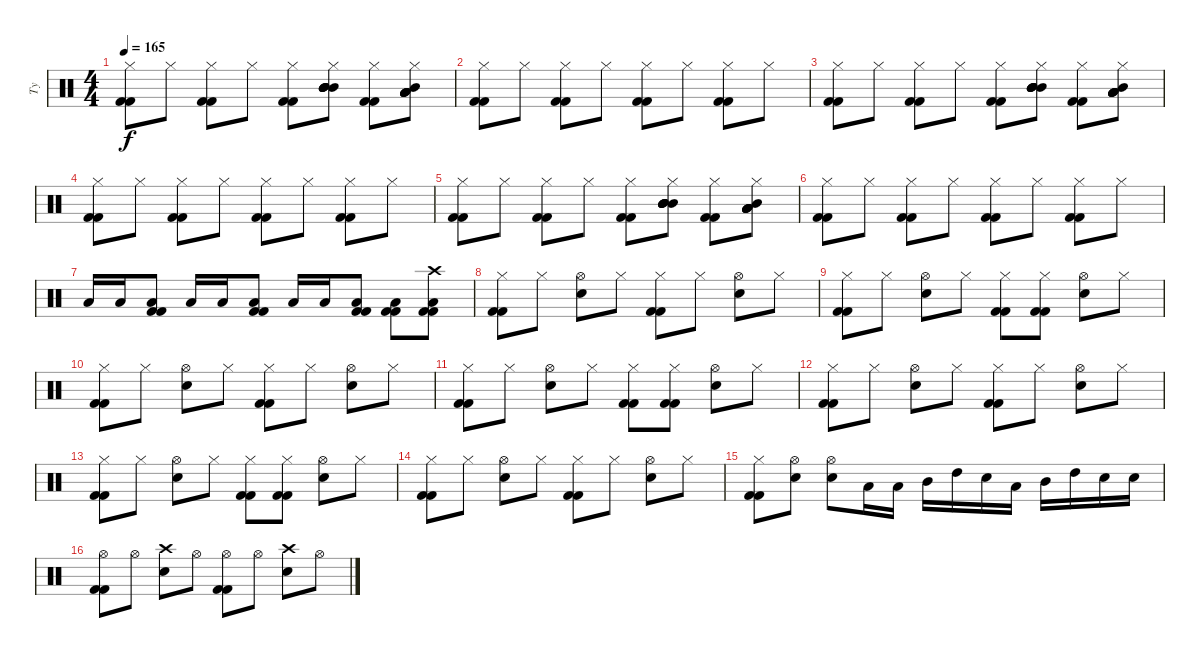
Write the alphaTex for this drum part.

\track ("Ty" "Ty") {instrument percussion}
\staff {score}
\articulation defaults
\ts (4 4)
\tempo 165
\clef neutral
\ks c
("Hi-Hat (closed)" "Kick (hit) 2" "Kick (hit) 2").8{dy f} "Hi-Hat (closed)".8 ("Hi-Hat (closed)" "Kick (hit) 2" "Kick (hit) 2").8 "Hi-Hat (closed)".8 ("Hi-Hat (closed)" "Kick (hit) 2" "Kick (hit) 2").8 ("Hi-Hat (closed)" "Mid Tom (hit)" "Mid Tom (hit)" "Mid Tom (hit)" "Mid Tom (hit)" "Mid Tom (hit)").8 ("Hi-Hat (closed)" "Kick (hit) 2" "Kick (hit) 2").8 ("Hi-Hat (closed)" "Mid Tom (hit)" "Low Tom (hit)" "Low Tom (hit)" "Low Tom (hit)" "Low Tom (hit)").8 |
("Hi-Hat (closed)" "Kick (hit) 2" "Kick (hit) 2").8 "Hi-Hat (closed)".8 ("Hi-Hat (closed)" "Kick (hit) 2" "Kick (hit) 2").8 "Hi-Hat (closed)".8 ("Hi-Hat (closed)" "Kick (hit) 2" "Kick (hit) 2").8 "Hi-Hat (closed)".8 ("Hi-Hat (closed)" "Kick (hit) 2" "Kick (hit) 2").8 "Hi-Hat (closed)".8 |
("Hi-Hat (closed)" "Kick (hit) 2" "Kick (hit) 2").8 "Hi-Hat (closed)".8 ("Hi-Hat (closed)" "Kick (hit) 2" "Kick (hit) 2").8 "Hi-Hat (closed)".8 ("Hi-Hat (closed)" "Kick (hit) 2" "Kick (hit) 2").8 ("Hi-Hat (closed)" "Mid Tom (hit)" "Mid Tom (hit)" "Mid Tom (hit)" "Mid Tom (hit)" "Mid Tom (hit)").8 ("Hi-Hat (closed)" "Kick (hit) 2" "Kick (hit) 2").8 ("Hi-Hat (closed)" "Mid Tom (hit)" "Low Tom (hit)" "Low Tom (hit)" "Low Tom (hit)" "Low Tom (hit)").8 |
("Hi-Hat (closed)" "Kick (hit) 2" "Kick (hit) 2").8 "Hi-Hat (closed)".8 ("Hi-Hat (closed)" "Kick (hit) 2" "Kick (hit) 2").8 "Hi-Hat (closed)".8 ("Hi-Hat (closed)" "Kick (hit) 2" "Kick (hit) 2").8 "Hi-Hat (closed)".8 ("Hi-Hat (closed)" "Kick (hit) 2" "Kick (hit) 2").8 "Hi-Hat (closed)".8 |
("Hi-Hat (closed)" "Kick (hit) 2" "Kick (hit) 2").8 "Hi-Hat (closed)".8 ("Hi-Hat (closed)" "Kick (hit) 2" "Kick (hit) 2").8 "Hi-Hat (closed)".8 ("Hi-Hat (closed)" "Kick (hit) 2" "Kick (hit) 2").8 ("Hi-Hat (closed)" "Mid Tom (hit)" "Mid Tom (hit)" "Mid Tom (hit)" "Mid Tom (hit)" "Mid Tom (hit)").8 ("Hi-Hat (closed)" "Kick (hit) 2" "Kick (hit) 2").8 ("Hi-Hat (closed)" "Mid Tom (hit)" "Low Tom (hit)" "Low Tom (hit)" "Low Tom (hit)" "Low Tom (hit)").8 |
("Hi-Hat (closed)" "Kick (hit) 2" "Kick (hit) 2").8 "Hi-Hat (closed)".8 ("Hi-Hat (closed)" "Kick (hit) 2" "Kick (hit) 2").8 "Hi-Hat (closed)".8 ("Hi-Hat (closed)" "Kick (hit) 2" "Kick (hit) 2").8 "Hi-Hat (closed)".8 ("Hi-Hat (closed)" "Kick (hit) 2" "Kick (hit) 2").8 "Hi-Hat (closed)".8 |
"Low Tom (hit)".16 "Low Tom (hit)".16 ("Low Tom (hit)" "Kick (hit) 2" "Kick (hit) 2").8 "Low Tom (hit)".16 "Low Tom (hit)".16 ("Low Tom (hit)" "Kick (hit) 2" "Kick (hit) 2").8 "Low Tom (hit)".16 "Low Tom (hit)".16 ("Low Tom (hit)" "Kick (hit) 2" "Kick (hit) 2").8 ("Low Tom (hit)" "Kick (hit) 2" "Kick (hit) 2").8 ("Crash high (hit)" "Low Tom (hit)" "Kick (hit) 2" "Kick (hit) 2").8 |
("Hi-Hat (closed)" "Kick (hit) 2" "Kick (hit) 2").8 "Hi-Hat (closed)".8 ("Hi-Hat (open)" "Electric Snare (hit)").8 "Hi-Hat (closed)".8 ("Hi-Hat (closed)" "Kick (hit) 2" "Kick (hit) 2").8 "Hi-Hat (closed)".8 ("Hi-Hat (open)" "Electric Snare (hit)").8 "Hi-Hat (closed)".8 |
("Hi-Hat (closed)" "Kick (hit) 2" "Kick (hit) 2").8 "Hi-Hat (closed)".8 ("Hi-Hat (open)" "Electric Snare (hit)").8 "Hi-Hat (closed)".8 ("Hi-Hat (closed)" "Kick (hit) 2" "Kick (hit) 2").8 ("Hi-Hat (closed)" "Kick (hit) 2" "Kick (hit) 2").8 ("Hi-Hat (open)" "Electric Snare (hit)").8 "Hi-Hat (closed)".8 |
("Hi-Hat (closed)" "Kick (hit) 2" "Kick (hit) 2").8 "Hi-Hat (closed)".8 ("Hi-Hat (open)" "Electric Snare (hit)").8 "Hi-Hat (closed)".8 ("Hi-Hat (closed)" "Kick (hit) 2" "Kick (hit) 2").8 "Hi-Hat (closed)".8 ("Hi-Hat (open)" "Electric Snare (hit)").8 "Hi-Hat (closed)".8 |
("Hi-Hat (closed)" "Kick (hit) 2" "Kick (hit) 2").8 "Hi-Hat (closed)".8 ("Hi-Hat (open)" "Electric Snare (hit)").8 "Hi-Hat (closed)".8 ("Hi-Hat (closed)" "Kick (hit) 2" "Kick (hit) 2").8 ("Hi-Hat (closed)" "Kick (hit) 2" "Kick (hit) 2").8 ("Hi-Hat (open)" "Electric Snare (hit)").8 "Hi-Hat (closed)".8 |
("Hi-Hat (closed)" "Kick (hit) 2" "Kick (hit) 2").8 "Hi-Hat (closed)".8 ("Hi-Hat (open)" "Electric Snare (hit)").8 "Hi-Hat (closed)".8 ("Hi-Hat (closed)" "Kick (hit) 2" "Kick (hit) 2").8 "Hi-Hat (closed)".8 ("Hi-Hat (open)" "Electric Snare (hit)").8 "Hi-Hat (closed)".8 |
("Hi-Hat (closed)" "Kick (hit) 2" "Kick (hit) 2").8 "Hi-Hat (closed)".8 ("Hi-Hat (open)" "Electric Snare (hit)").8 "Hi-Hat (closed)".8 ("Hi-Hat (closed)" "Kick (hit) 2" "Kick (hit) 2").8 ("Hi-Hat (closed)" "Kick (hit) 2" "Kick (hit) 2").8 ("Hi-Hat (open)" "Electric Snare (hit)").8 "Hi-Hat (closed)".8 |
("Hi-Hat (closed)" "Kick (hit) 2" "Kick (hit) 2").8 "Hi-Hat (closed)".8 ("Hi-Hat (open)" "Electric Snare (hit)").8 "Hi-Hat (closed)".8 ("Hi-Hat (closed)" "Kick (hit) 2" "Kick (hit) 2").8 "Hi-Hat (closed)".8 ("Hi-Hat (open)" "Electric Snare (hit)").8 "Hi-Hat (closed)".8 |
("Hi-Hat (closed)" "Kick (hit) 2" "Kick (hit) 2").8 ("Hi-Hat (open)" "Electric Snare (hit)").8 ("Hi-Hat (open)" "Electric Snare (hit)").8 "Low Tom (hit)".16 "Low Tom (hit)".16 "Mid Tom (hit)".16 "High Tom (hit)".16 "Electric Snare (hit)".16 "Low Tom (hit)".16 "Mid Tom (hit)".16 "High Tom (hit)".16 "Electric Snare (hit)".16 "Electric Snare (hit)".16 |
("Hi-Hat (open)" "Kick (hit) 2" "Kick (hit) 2").8 "Hi-Hat (open)".8 ("Crash high (hit)" "Electric Snare (hit)").8 "Hi-Hat (open)".8 ("Hi-Hat (open)" "Kick (hit) 2" "Kick (hit) 2").8 "Hi-Hat (open)".8 ("Crash high (hit)" "Electric Snare (hit)").8 "Hi-Hat (open)".8
